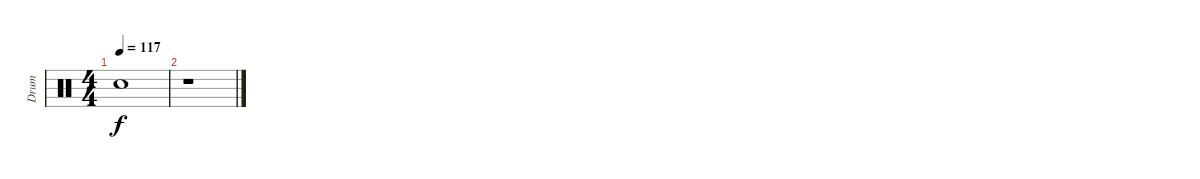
\track ("Drum" "Drum") {instrument percussion}
\staff {score}
\articulation defaults
\ts (4 4)
\tempo 117
\clef neutral
\ks c "Snare (hit)"{t}.1{dy f}
|
r.1
